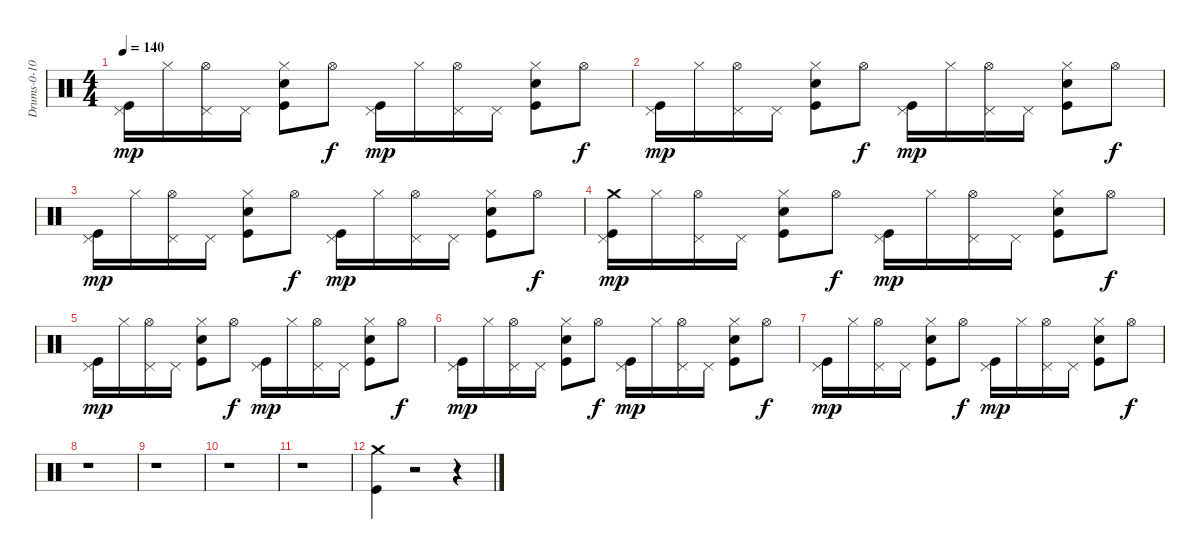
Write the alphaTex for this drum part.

\track ("Drums-0-10" "Drums-0-10") {instrument percussion}
\staff {score}
\articulation defaults
\ts (4 4)
\tempo 140
\clef neutral
\ks c
("Pedal Hi-Hat (hit)" "Kick (hit)").16{dy mp} "Hi-Hat (closed)".16 ("Hi-Hat (open)" "Pedal Hi-Hat (hit)").16 "Pedal Hi-Hat (hit)".16 ("Kick (hit)" "Hand Clap (hit)" "Hi-Hat (closed)").8 "Hi-Hat (open)".8{dy f} ("Kick (hit)" "Pedal Hi-Hat (hit)").16{dy mp} "Hi-Hat (closed)".16 ("Pedal Hi-Hat (hit)" "Hi-Hat (open)").16 "Pedal Hi-Hat (hit)".16 ("Hand Clap (hit)" "Kick (hit)" "Hi-Hat (closed)").8 "Hi-Hat (open)".8{dy f} |
("Pedal Hi-Hat (hit)" "Kick (hit)").16{dy mp} "Hi-Hat (closed)".16 ("Pedal Hi-Hat (hit)" "Hi-Hat (open)").16 "Pedal Hi-Hat (hit)".16 ("Kick (hit)" "Hand Clap (hit)" "Hi-Hat (closed)").8 "Hi-Hat (open)".8{dy f} ("Kick (hit)" "Pedal Hi-Hat (hit)").16{dy mp} "Hi-Hat (closed)".16 ("Hi-Hat (open)" "Pedal Hi-Hat (hit)").16 "Pedal Hi-Hat (hit)".16 ("Kick (hit)" "Hi-Hat (closed)" "Hand Clap (hit)").8 "Hi-Hat (open)".8{dy f} |
("Pedal Hi-Hat (hit)" "Kick (hit)").16{dy mp} "Hi-Hat (closed)".16 ("Pedal Hi-Hat (hit)" "Hi-Hat (open)").16 "Pedal Hi-Hat (hit)".16 ("Hand Clap (hit)" "Kick (hit)" "Hi-Hat (closed)").8 "Hi-Hat (open)".8{dy f} ("Kick (hit)" "Pedal Hi-Hat (hit)").16{dy mp} "Hi-Hat (closed)".16 ("Hi-Hat (open)" "Pedal Hi-Hat (hit)").16 "Pedal Hi-Hat (hit)".16 ("Kick (hit)" "Hand Clap (hit)" "Hi-Hat (closed)").8 "Hi-Hat (open)".8{dy f} |
("Crash medium (hit)" "Kick (hit)" "Pedal Hi-Hat (hit)").16{dy mp} "Hi-Hat (closed)".16 ("Pedal Hi-Hat (hit)" "Hi-Hat (open)").16 "Pedal Hi-Hat (hit)".16 ("Kick (hit)" "Hand Clap (hit)" "Hi-Hat (closed)").8 "Hi-Hat (open)".8{dy f} ("Kick (hit)" "Pedal Hi-Hat (hit)").16{dy mp} "Hi-Hat (closed)".16 ("Pedal Hi-Hat (hit)" "Hi-Hat (open)").16 "Pedal Hi-Hat (hit)".16 ("Kick (hit)" "Hand Clap (hit)" "Hi-Hat (closed)").8 "Hi-Hat (open)".8{dy f} |
("Kick (hit)" "Pedal Hi-Hat (hit)").16{dy mp} "Hi-Hat (closed)".16 ("Pedal Hi-Hat (hit)" "Hi-Hat (open)").16 "Pedal Hi-Hat (hit)".16 ("Kick (hit)" "Hand Clap (hit)" "Hi-Hat (closed)").8 "Hi-Hat (open)".8{dy f} ("Kick (hit)" "Pedal Hi-Hat (hit)").16{dy mp} "Hi-Hat (closed)".16 ("Pedal Hi-Hat (hit)" "Hi-Hat (open)").16 "Pedal Hi-Hat (hit)".16 ("Kick (hit)" "Hand Clap (hit)" "Hi-Hat (closed)").8 "Hi-Hat (open)".8{dy f} |
("Kick (hit)" "Pedal Hi-Hat (hit)").16{dy mp} "Hi-Hat (closed)".16 ("Pedal Hi-Hat (hit)" "Hi-Hat (open)").16 "Pedal Hi-Hat (hit)".16 ("Kick (hit)" "Hand Clap (hit)" "Hi-Hat (closed)").8 "Hi-Hat (open)".8{dy f} ("Kick (hit)" "Pedal Hi-Hat (hit)").16{dy mp} "Hi-Hat (closed)".16 ("Pedal Hi-Hat (hit)" "Hi-Hat (open)").16 "Pedal Hi-Hat (hit)".16 ("Kick (hit)" "Hand Clap (hit)" "Hi-Hat (closed)").8 "Hi-Hat (open)".8{dy f} |
("Kick (hit)" "Pedal Hi-Hat (hit)").16{dy mp} "Hi-Hat (closed)".16 ("Pedal Hi-Hat (hit)" "Hi-Hat (open)").16 "Pedal Hi-Hat (hit)".16 ("Kick (hit)" "Hand Clap (hit)" "Hi-Hat (closed)").8 "Hi-Hat (open)".8{dy f} ("Kick (hit)" "Pedal Hi-Hat (hit)").16{dy mp} "Hi-Hat (closed)".16 ("Pedal Hi-Hat (hit)" "Hi-Hat (open)").16 "Pedal Hi-Hat (hit)".16 ("Kick (hit)" "Hand Clap (hit)" "Hi-Hat (closed)").8 "Hi-Hat (open)".8{dy f} |
r.1 |
r.1 |
r.1 |
r.1 |
("Crash medium (hit)" "Kick (hit)").4 r.2 r.4
